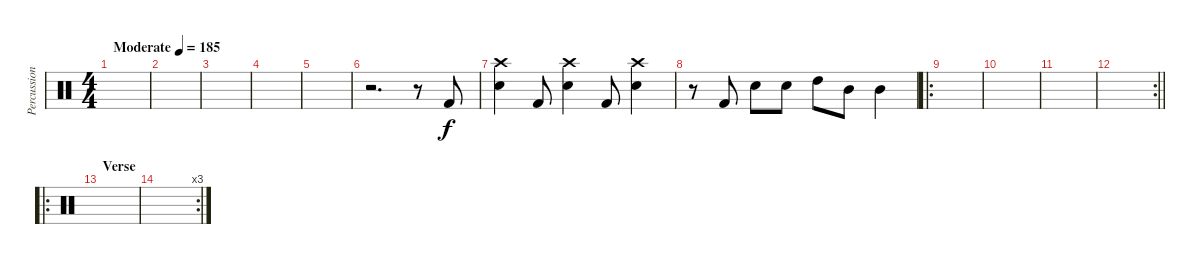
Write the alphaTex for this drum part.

\track ("Percussion" "Percussion") {instrument percussion}
\staff {score}
\articulation defaults
\ts (4 4)
\tempo (185 "Moderate")
\clef neutral
\ks c
|
|
|
|
|
r.2{d} r.8 "Kick (hit) 2".8 |
("Crash high (hit)" "Electric Snare (hit)").4 "Kick (hit) 2".8 ("Crash high (hit)" "Electric Snare (hit)").4 "Kick (hit) 2".8 ("Crash high (hit)" "Electric Snare (hit)").4 |
r.8 "Kick (hit) 2".8 "Electric Snare (hit)".8 "Electric Snare (hit)".8 "High Tom (hit)".8 "Mid Tom (hit)".8 "Mid Tom (hit)".4 |
\ro
|
|
|
\rc 2
\barLineRight lightlight
|
\ro
\section ("" "Verse")
|
\rc 3
